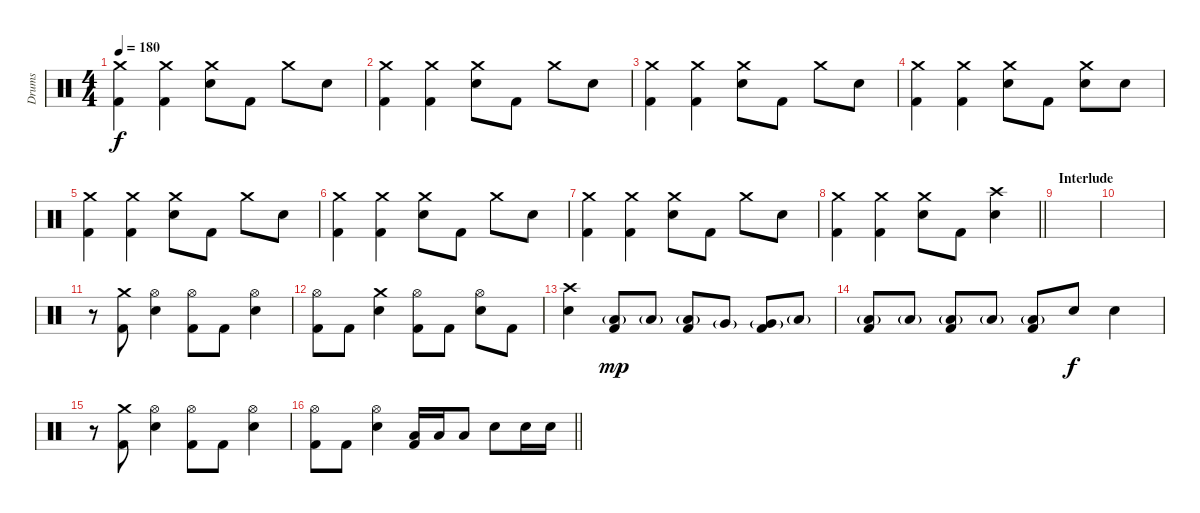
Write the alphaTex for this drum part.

\track ("Drums" "Drums") {instrument percussion}
\staff {score}
\articulation defaults
\ts (4 4)
\tempo 180
\clef neutral
\ks c
("Crash medium (hit)" "Kick (hit) 2").4{dy f} ("Crash medium (hit)" "Kick (hit) 2").4 ("Crash medium (hit)" "Electric Snare (hit)").8 "Kick (hit) 2".8 "Crash medium (hit)".8 "Electric Snare (hit)".8 |
("Crash medium (hit)" "Kick (hit) 2").4 ("Crash medium (hit)" "Kick (hit) 2").4 ("Crash medium (hit)" "Electric Snare (hit)").8 "Kick (hit) 2".8 "Crash medium (hit)".8 "Electric Snare (hit)".8 |
("Crash medium (hit)" "Kick (hit) 2").4 ("Crash medium (hit)" "Kick (hit) 2").4 ("Crash medium (hit)" "Electric Snare (hit)").8 "Kick (hit) 2".8 "Crash medium (hit)".8 "Electric Snare (hit)".8 |
("Crash medium (hit)" "Kick (hit) 2").4 ("Crash medium (hit)" "Kick (hit) 2").4 ("Crash medium (hit)" "Electric Snare (hit)").8 "Kick (hit) 2".8 ("Crash medium (hit)" "Electric Snare (hit)").8 "Electric Snare (hit)".8 |
("Crash medium (hit)" "Kick (hit) 2").4 ("Crash medium (hit)" "Kick (hit) 2").4 ("Crash medium (hit)" "Electric Snare (hit)").8 "Kick (hit) 2".8 "Crash medium (hit)".8 "Electric Snare (hit)".8 |
("Crash medium (hit)" "Kick (hit) 2").4 ("Crash medium (hit)" "Kick (hit) 2").4 ("Crash medium (hit)" "Electric Snare (hit)").8 "Kick (hit) 2".8 "Crash medium (hit)".8 "Electric Snare (hit)".8 |
("Crash medium (hit)" "Kick (hit) 2").4 ("Crash medium (hit)" "Kick (hit) 2").4 ("Crash medium (hit)" "Electric Snare (hit)").8 "Kick (hit) 2".8 "Crash medium (hit)".8 "Electric Snare (hit)".8 |
\barLineRight lightlight
("Crash medium (hit)" "Kick (hit) 2").4 ("Crash medium (hit)" "Kick (hit) 2").4 ("Crash medium (hit)" "Electric Snare (hit)").8 "Kick (hit) 2".8 ("Crash high (hit)" "Electric Snare (hit)").4 |
\section ("" "Interlude")
|
|
r.8 ("Crash medium (hit)" "Kick (hit) 2").8 ("Hi-Hat (open)" "Electric Snare (hit)").4 ("Hi-Hat (open)" "Kick (hit) 2").8 "Kick (hit) 2".8 ("Hi-Hat (open)" "Electric Snare (hit)").4 |
("Hi-Hat (open)" "Kick (hit) 2").8 "Kick (hit) 2".8 ("Crash medium (hit)" "Electric Snare (hit)").4 ("Hi-Hat (open)" "Kick (hit) 2").8 "Kick (hit) 2".8 ("Hi-Hat (open)" "Electric Snare (hit)").8 "Kick (hit) 2".8 |
("Crash high (hit)" "Electric Snare (hit)").4 ("Low Floor Tom (hit)"{g} "Kick (hit) 2").8{dy mp} "Low Floor Tom (hit)"{g}.8 ("Low Floor Tom (hit)"{g} "Kick (hit) 2").8 "Very Low Tom (hit)"{g}.8 ("Very Low Tom (hit)"{g} "Kick (hit) 2").8 "Low Tom (hit)"{g}.8 |
("Low Tom (hit)"{g} "Kick (hit) 2").8 "Low Tom (hit)"{g}.8 ("Low Tom (hit)"{g} "Kick (hit) 2").8 "Low Tom (hit)"{g}.8 ("Low Tom (hit)"{g} "Kick (hit) 2").8 "Electric Snare (hit)".8{dy f} "Electric Snare (hit)".4 |
r.8 ("Crash medium (hit)" "Kick (hit) 2").8 ("Hi-Hat (open)" "Electric Snare (hit)").4 ("Hi-Hat (open)" "Kick (hit) 2").8 "Kick (hit) 2".8 ("Hi-Hat (open)" "Electric Snare (hit)").4 |
\barLineRight lightlight
("Hi-Hat (open)" "Kick (hit) 2").8 "Kick (hit) 2".8 ("Hi-Hat (open)" "Electric Snare (hit)").4 ("Low Tom (hit)" "Kick (hit) 2").16 "Low Tom (hit)".16 "Low Tom (hit)".8 "Electric Snare (hit)".8 "Electric Snare (hit)".16 "Electric Snare (hit)".16
